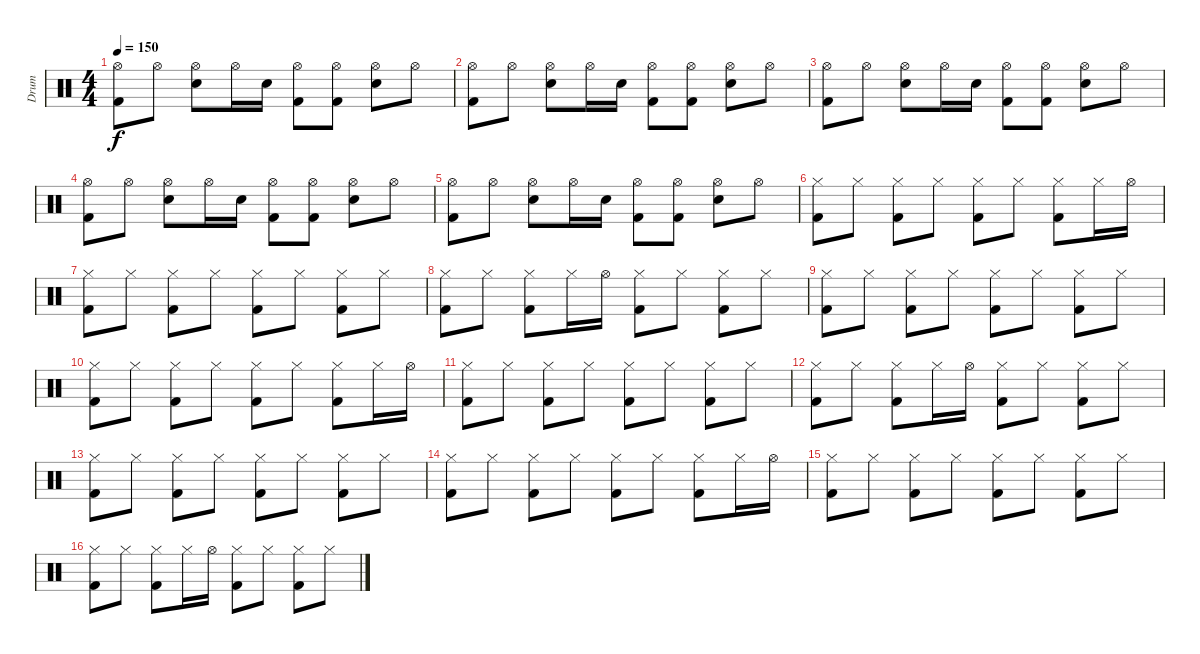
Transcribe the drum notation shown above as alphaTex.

\track ("Drum" "Drum") {instrument percussion}
\staff {score}
\articulation defaults
\ts (4 4)
\tempo 150
\clef neutral
\ks c
("Hi-Hat (open)" "Kick (hit) 2").8{dy f} "Hi-Hat (open)".8 ("Hi-Hat (open)" "Snare (hit) 2").8 "Hi-Hat (open)".16 "Snare (hit) 2".16 ("Hi-Hat (open)" "Kick (hit) 2").8 ("Hi-Hat (open)" "Kick (hit) 2").8 ("Hi-Hat (open)" "Snare (hit) 2").8 "Hi-Hat (open)".8 |
("Hi-Hat (open)" "Kick (hit) 2").8 "Hi-Hat (open)".8 ("Hi-Hat (open)" "Snare (hit) 2").8 "Hi-Hat (open)".16 "Snare (hit) 2".16 ("Hi-Hat (open)" "Kick (hit) 2").8 ("Hi-Hat (open)" "Kick (hit) 2").8 ("Hi-Hat (open)" "Snare (hit) 2").8 "Hi-Hat (open)".8 |
("Hi-Hat (open)" "Kick (hit) 2").8 "Hi-Hat (open)".8 ("Hi-Hat (open)" "Snare (hit) 2").8 "Hi-Hat (open)".16 "Snare (hit) 2".16 ("Hi-Hat (open)" "Kick (hit) 2").8 ("Hi-Hat (open)" "Kick (hit) 2").8 ("Hi-Hat (open)" "Snare (hit) 2").8 "Hi-Hat (open)".8 |
("Hi-Hat (open)" "Kick (hit) 2").8 "Hi-Hat (open)".8 ("Hi-Hat (open)" "Snare (hit) 2").8 "Hi-Hat (open)".16 "Snare (hit) 2".16 ("Hi-Hat (open)" "Kick (hit) 2").8 ("Hi-Hat (open)" "Kick (hit) 2").8 ("Hi-Hat (open)" "Snare (hit) 2").8 "Hi-Hat (open)".8 |
("Hi-Hat (open)" "Kick (hit) 2").8 "Hi-Hat (open)".8 ("Hi-Hat (open)" "Snare (hit) 2").8 "Hi-Hat (open)".16 "Snare (hit) 2".16 ("Hi-Hat (open)" "Kick (hit) 2").8 ("Hi-Hat (open)" "Kick (hit) 2").8 ("Hi-Hat (open)" "Snare (hit) 2").8 "Hi-Hat (open)".8 |
("Hi-Hat (closed)" "Kick (hit) 2").8 "Hi-Hat (closed)".8 ("Hi-Hat (closed)" "Kick (hit) 2").8 "Hi-Hat (closed)".8 ("Hi-Hat (closed)" "Kick (hit) 2").8 "Hi-Hat (closed)".8 ("Hi-Hat (closed)" "Kick (hit) 2").8 "Hi-Hat (closed)".16 "Hi-Hat (open)".16 |
("Hi-Hat (closed)" "Kick (hit) 2").8 "Hi-Hat (closed)".8 ("Hi-Hat (closed)" "Kick (hit) 2").8 "Hi-Hat (closed)".8 ("Hi-Hat (closed)" "Kick (hit) 2").8 "Hi-Hat (closed)".8 ("Hi-Hat (closed)" "Kick (hit) 2").8 "Hi-Hat (closed)".8 |
("Hi-Hat (closed)" "Kick (hit) 2").8 "Hi-Hat (closed)".8 ("Hi-Hat (closed)" "Kick (hit) 2").8 "Hi-Hat (closed)".16 "Hi-Hat (open)".16 ("Hi-Hat (closed)" "Kick (hit) 2").8 "Hi-Hat (closed)".8 ("Hi-Hat (closed)" "Kick (hit) 2").8 "Hi-Hat (closed)".8 |
("Hi-Hat (closed)" "Kick (hit) 2").8 "Hi-Hat (closed)".8 ("Hi-Hat (closed)" "Kick (hit) 2").8 "Hi-Hat (closed)".8 ("Hi-Hat (closed)" "Kick (hit) 2").8 "Hi-Hat (closed)".8 ("Hi-Hat (closed)" "Kick (hit) 2").8 "Hi-Hat (closed)".8 |
("Hi-Hat (closed)" "Kick (hit) 2").8 "Hi-Hat (closed)".8 ("Hi-Hat (closed)" "Kick (hit) 2").8 "Hi-Hat (closed)".8 ("Hi-Hat (closed)" "Kick (hit) 2").8 "Hi-Hat (closed)".8 ("Hi-Hat (closed)" "Kick (hit) 2").8 "Hi-Hat (closed)".16 "Hi-Hat (open)".16 |
("Hi-Hat (closed)" "Kick (hit) 2").8 "Hi-Hat (closed)".8 ("Hi-Hat (closed)" "Kick (hit) 2").8 "Hi-Hat (closed)".8 ("Hi-Hat (closed)" "Kick (hit) 2").8 "Hi-Hat (closed)".8 ("Hi-Hat (closed)" "Kick (hit) 2").8 "Hi-Hat (closed)".8 |
("Hi-Hat (closed)" "Kick (hit) 2").8 "Hi-Hat (closed)".8 ("Hi-Hat (closed)" "Kick (hit) 2").8 "Hi-Hat (closed)".16 "Hi-Hat (open)".16 ("Hi-Hat (closed)" "Kick (hit) 2").8 "Hi-Hat (closed)".8 ("Hi-Hat (closed)" "Kick (hit) 2").8 "Hi-Hat (closed)".8 |
("Hi-Hat (closed)" "Kick (hit) 2").8 "Hi-Hat (closed)".8 ("Hi-Hat (closed)" "Kick (hit) 2").8 "Hi-Hat (closed)".8 ("Hi-Hat (closed)" "Kick (hit) 2").8 "Hi-Hat (closed)".8 ("Hi-Hat (closed)" "Kick (hit) 2").8 "Hi-Hat (closed)".8 |
("Hi-Hat (closed)" "Kick (hit) 2").8 "Hi-Hat (closed)".8 ("Hi-Hat (closed)" "Kick (hit) 2").8 "Hi-Hat (closed)".8 ("Hi-Hat (closed)" "Kick (hit) 2").8 "Hi-Hat (closed)".8 ("Hi-Hat (closed)" "Kick (hit) 2").8 "Hi-Hat (closed)".16 "Hi-Hat (open)".16 |
("Hi-Hat (closed)" "Kick (hit) 2").8 "Hi-Hat (closed)".8 ("Hi-Hat (closed)" "Kick (hit) 2").8 "Hi-Hat (closed)".8 ("Hi-Hat (closed)" "Kick (hit) 2").8 "Hi-Hat (closed)".8 ("Hi-Hat (closed)" "Kick (hit) 2").8 "Hi-Hat (closed)".8 |
("Hi-Hat (closed)" "Kick (hit) 2").8 "Hi-Hat (closed)".8 ("Hi-Hat (closed)" "Kick (hit) 2").8 "Hi-Hat (closed)".16 "Hi-Hat (open)".16 ("Hi-Hat (closed)" "Kick (hit) 2").8 "Hi-Hat (closed)".8 ("Hi-Hat (closed)" "Kick (hit) 2").8 "Hi-Hat (closed)".8
